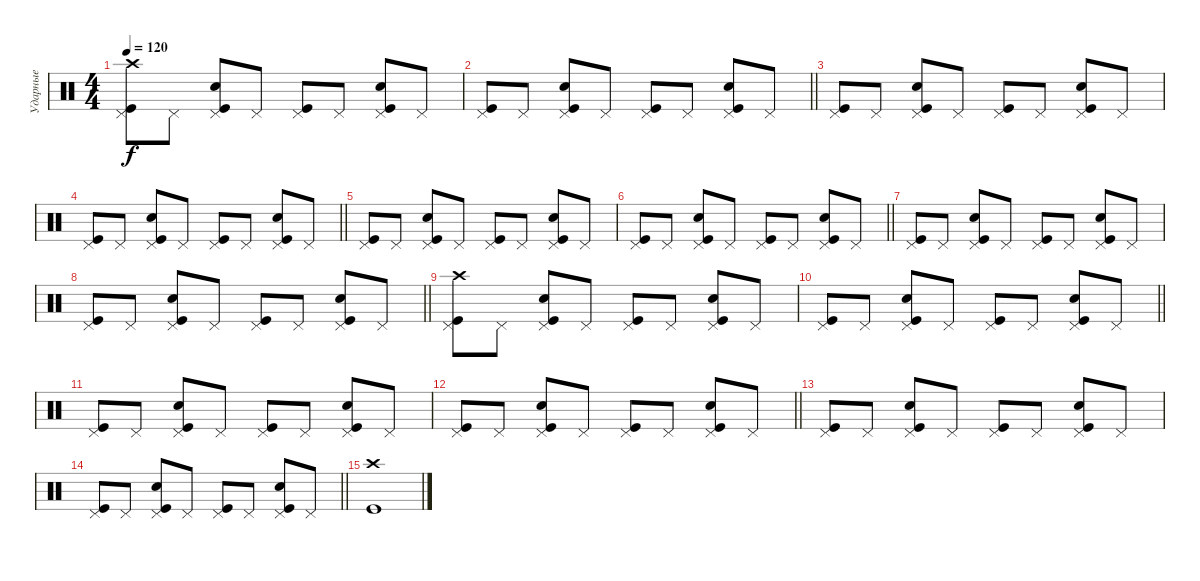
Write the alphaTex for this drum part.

\track ("Ударные" "Ударные") {instrument percussion}
\staff {score}
\articulation defaults
\ts (4 4)
\tempo 120
\clef neutral
\ks c
("Pedal Hi-Hat (hit)" "Kick (hit)" "Crash high (hit)").8{dy f} "Pedal Hi-Hat (hit)".8 ("Pedal Hi-Hat (hit)" "Kick (hit)" "Snare (hit) 2").8 "Pedal Hi-Hat (hit)".8 ("Pedal Hi-Hat (hit)" "Kick (hit)").8 "Pedal Hi-Hat (hit)".8 ("Pedal Hi-Hat (hit)" "Kick (hit)" "Snare (hit) 2").8 "Pedal Hi-Hat (hit)".8 |
\barLineRight lightlight
("Pedal Hi-Hat (hit)" "Kick (hit)").8 "Pedal Hi-Hat (hit)".8 ("Pedal Hi-Hat (hit)" "Kick (hit)" "Snare (hit) 2").8 "Pedal Hi-Hat (hit)".8 ("Pedal Hi-Hat (hit)" "Kick (hit)").8 "Pedal Hi-Hat (hit)".8 ("Pedal Hi-Hat (hit)" "Kick (hit)" "Snare (hit) 2").8 "Pedal Hi-Hat (hit)".8 |
("Pedal Hi-Hat (hit)" "Kick (hit)").8 "Pedal Hi-Hat (hit)".8 ("Pedal Hi-Hat (hit)" "Kick (hit)" "Snare (hit) 2").8 "Pedal Hi-Hat (hit)".8 ("Pedal Hi-Hat (hit)" "Kick (hit)").8 "Pedal Hi-Hat (hit)".8 ("Pedal Hi-Hat (hit)" "Kick (hit)" "Snare (hit) 2").8 "Pedal Hi-Hat (hit)".8 |
\barLineRight lightlight
("Pedal Hi-Hat (hit)" "Kick (hit)").8 "Pedal Hi-Hat (hit)".8 ("Pedal Hi-Hat (hit)" "Kick (hit)" "Snare (hit) 2").8 "Pedal Hi-Hat (hit)".8 ("Pedal Hi-Hat (hit)" "Kick (hit)").8 "Pedal Hi-Hat (hit)".8 ("Pedal Hi-Hat (hit)" "Kick (hit)" "Snare (hit) 2").8 "Pedal Hi-Hat (hit)".8 |
("Pedal Hi-Hat (hit)" "Kick (hit)").8 "Pedal Hi-Hat (hit)".8 ("Pedal Hi-Hat (hit)" "Kick (hit)" "Snare (hit) 2").8 "Pedal Hi-Hat (hit)".8 ("Pedal Hi-Hat (hit)" "Kick (hit)").8 "Pedal Hi-Hat (hit)".8 ("Pedal Hi-Hat (hit)" "Kick (hit)" "Snare (hit) 2").8 "Pedal Hi-Hat (hit)".8 |
\barLineRight lightlight
("Pedal Hi-Hat (hit)" "Kick (hit)").8 "Pedal Hi-Hat (hit)".8 ("Pedal Hi-Hat (hit)" "Kick (hit)" "Snare (hit) 2").8 "Pedal Hi-Hat (hit)".8 ("Pedal Hi-Hat (hit)" "Kick (hit)").8 "Pedal Hi-Hat (hit)".8 ("Pedal Hi-Hat (hit)" "Kick (hit)" "Snare (hit) 2").8 "Pedal Hi-Hat (hit)".8 |
("Pedal Hi-Hat (hit)" "Kick (hit)").8 "Pedal Hi-Hat (hit)".8 ("Pedal Hi-Hat (hit)" "Kick (hit)" "Snare (hit) 2").8 "Pedal Hi-Hat (hit)".8 ("Pedal Hi-Hat (hit)" "Kick (hit)").8 "Pedal Hi-Hat (hit)".8 ("Pedal Hi-Hat (hit)" "Kick (hit)" "Snare (hit) 2").8 "Pedal Hi-Hat (hit)".8 |
\barLineRight lightlight
("Pedal Hi-Hat (hit)" "Kick (hit)").8 "Pedal Hi-Hat (hit)".8 ("Pedal Hi-Hat (hit)" "Kick (hit)" "Snare (hit) 2").8 "Pedal Hi-Hat (hit)".8 ("Pedal Hi-Hat (hit)" "Kick (hit)").8 "Pedal Hi-Hat (hit)".8 ("Pedal Hi-Hat (hit)" "Kick (hit)" "Snare (hit) 2").8 "Pedal Hi-Hat (hit)".8 |
("Pedal Hi-Hat (hit)" "Kick (hit)" "Crash high (hit)").8 "Pedal Hi-Hat (hit)".8 ("Pedal Hi-Hat (hit)" "Kick (hit)" "Snare (hit) 2").8 "Pedal Hi-Hat (hit)".8 ("Pedal Hi-Hat (hit)" "Kick (hit)").8 "Pedal Hi-Hat (hit)".8 ("Pedal Hi-Hat (hit)" "Kick (hit)" "Snare (hit) 2").8 "Pedal Hi-Hat (hit)".8 |
\barLineRight lightlight
("Pedal Hi-Hat (hit)" "Kick (hit)").8 "Pedal Hi-Hat (hit)".8 ("Pedal Hi-Hat (hit)" "Kick (hit)" "Snare (hit) 2").8 "Pedal Hi-Hat (hit)".8 ("Pedal Hi-Hat (hit)" "Kick (hit)").8 "Pedal Hi-Hat (hit)".8 ("Pedal Hi-Hat (hit)" "Kick (hit)" "Snare (hit) 2").8 "Pedal Hi-Hat (hit)".8 |
("Pedal Hi-Hat (hit)" "Kick (hit)").8 "Pedal Hi-Hat (hit)".8 ("Pedal Hi-Hat (hit)" "Kick (hit)" "Snare (hit) 2").8 "Pedal Hi-Hat (hit)".8 ("Pedal Hi-Hat (hit)" "Kick (hit)").8 "Pedal Hi-Hat (hit)".8 ("Pedal Hi-Hat (hit)" "Kick (hit)" "Snare (hit) 2").8 "Pedal Hi-Hat (hit)".8 |
\barLineRight lightlight
("Pedal Hi-Hat (hit)" "Kick (hit)").8 "Pedal Hi-Hat (hit)".8 ("Pedal Hi-Hat (hit)" "Kick (hit)" "Snare (hit) 2").8 "Pedal Hi-Hat (hit)".8 ("Pedal Hi-Hat (hit)" "Kick (hit)").8 "Pedal Hi-Hat (hit)".8 ("Pedal Hi-Hat (hit)" "Kick (hit)" "Snare (hit) 2").8 "Pedal Hi-Hat (hit)".8 |
("Pedal Hi-Hat (hit)" "Kick (hit)").8 "Pedal Hi-Hat (hit)".8 ("Pedal Hi-Hat (hit)" "Kick (hit)" "Snare (hit) 2").8 "Pedal Hi-Hat (hit)".8 ("Pedal Hi-Hat (hit)" "Kick (hit)").8 "Pedal Hi-Hat (hit)".8 ("Pedal Hi-Hat (hit)" "Kick (hit)" "Snare (hit) 2").8 "Pedal Hi-Hat (hit)".8 |
\barLineRight lightlight
("Pedal Hi-Hat (hit)" "Kick (hit)").8 "Pedal Hi-Hat (hit)".8 ("Pedal Hi-Hat (hit)" "Kick (hit)" "Snare (hit) 2").8 "Pedal Hi-Hat (hit)".8 ("Pedal Hi-Hat (hit)" "Kick (hit)").8 "Pedal Hi-Hat (hit)".8 ("Pedal Hi-Hat (hit)" "Kick (hit)" "Snare (hit) 2").8 "Pedal Hi-Hat (hit)".8 |
("Kick (hit)" "Crash high (hit)").1
